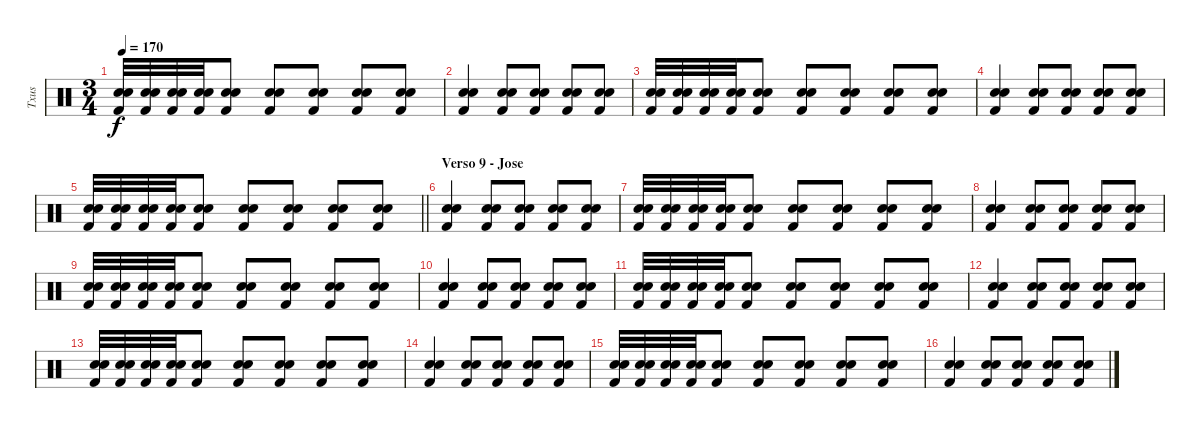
\track ("Txus" "Txus") {instrument percussion}
\staff {score}
\articulation defaults
\ts (3 4)
\tempo 170
\clef neutral
\ks c
("Snare (hit) 2" "Hand Clap (hit)" "Kick (hit) 2").32{dy f} ("Snare (hit) 2" "Hand Clap (hit)" "Kick (hit) 2").32 ("Snare (hit) 2" "Hand Clap (hit)" "Kick (hit) 2").32 ("Snare (hit) 2" "Hand Clap (hit)" "Kick (hit) 2").32 ("Snare (hit) 2" "Hand Clap (hit)" "Kick (hit) 2").8 ("Snare (hit) 2" "Hand Clap (hit)" "Kick (hit) 2").8 ("Snare (hit) 2" "Hand Clap (hit)" "Kick (hit) 2").8 ("Snare (hit) 2" "Hand Clap (hit)" "Kick (hit) 2").8 ("Snare (hit) 2" "Hand Clap (hit)" "Kick (hit) 2").8 |
("Snare (hit) 2" "Hand Clap (hit)" "Kick (hit) 2").4 ("Snare (hit) 2" "Hand Clap (hit)" "Kick (hit) 2").8 ("Snare (hit) 2" "Hand Clap (hit)" "Kick (hit) 2").8 ("Snare (hit) 2" "Hand Clap (hit)" "Kick (hit) 2").8 ("Snare (hit) 2" "Hand Clap (hit)" "Kick (hit) 2").8 |
("Snare (hit) 2" "Hand Clap (hit)" "Kick (hit) 2").32 ("Snare (hit) 2" "Hand Clap (hit)" "Kick (hit) 2").32 ("Snare (hit) 2" "Hand Clap (hit)" "Kick (hit) 2").32 ("Snare (hit) 2" "Hand Clap (hit)" "Kick (hit) 2").32 ("Snare (hit) 2" "Hand Clap (hit)" "Kick (hit) 2").8 ("Snare (hit) 2" "Hand Clap (hit)" "Kick (hit) 2").8 ("Snare (hit) 2" "Hand Clap (hit)" "Kick (hit) 2").8 ("Snare (hit) 2" "Hand Clap (hit)" "Kick (hit) 2").8 ("Snare (hit) 2" "Hand Clap (hit)" "Kick (hit) 2").8 |
("Snare (hit) 2" "Hand Clap (hit)" "Kick (hit) 2").4 ("Snare (hit) 2" "Hand Clap (hit)" "Kick (hit) 2").8 ("Snare (hit) 2" "Hand Clap (hit)" "Kick (hit) 2").8 ("Snare (hit) 2" "Hand Clap (hit)" "Kick (hit) 2").8 ("Snare (hit) 2" "Hand Clap (hit)" "Kick (hit) 2").8 |
\barLineRight lightlight
("Snare (hit) 2" "Hand Clap (hit)" "Kick (hit) 2").32 ("Snare (hit) 2" "Hand Clap (hit)" "Kick (hit) 2").32 ("Snare (hit) 2" "Hand Clap (hit)" "Kick (hit) 2").32 ("Snare (hit) 2" "Hand Clap (hit)" "Kick (hit) 2").32 ("Snare (hit) 2" "Hand Clap (hit)" "Kick (hit) 2").8 ("Snare (hit) 2" "Hand Clap (hit)" "Kick (hit) 2").8 ("Snare (hit) 2" "Hand Clap (hit)" "Kick (hit) 2").8 ("Snare (hit) 2" "Hand Clap (hit)" "Kick (hit) 2").8 ("Snare (hit) 2" "Hand Clap (hit)" "Kick (hit) 2").8 |
\section ("" "Verso 9 - Jose")
("Snare (hit) 2" "Hand Clap (hit)" "Kick (hit) 2").4 ("Snare (hit) 2" "Hand Clap (hit)" "Kick (hit) 2").8 ("Snare (hit) 2" "Hand Clap (hit)" "Kick (hit) 2").8 ("Snare (hit) 2" "Hand Clap (hit)" "Kick (hit) 2").8 ("Snare (hit) 2" "Hand Clap (hit)" "Kick (hit) 2").8 |
("Snare (hit) 2" "Hand Clap (hit)" "Kick (hit) 2").32 ("Snare (hit) 2" "Hand Clap (hit)" "Kick (hit) 2").32 ("Snare (hit) 2" "Hand Clap (hit)" "Kick (hit) 2").32 ("Snare (hit) 2" "Hand Clap (hit)" "Kick (hit) 2").32 ("Snare (hit) 2" "Hand Clap (hit)" "Kick (hit) 2").8 ("Snare (hit) 2" "Hand Clap (hit)" "Kick (hit) 2").8 ("Snare (hit) 2" "Hand Clap (hit)" "Kick (hit) 2").8 ("Snare (hit) 2" "Hand Clap (hit)" "Kick (hit) 2").8 ("Snare (hit) 2" "Hand Clap (hit)" "Kick (hit) 2").8 |
("Snare (hit) 2" "Hand Clap (hit)" "Kick (hit) 2").4 ("Snare (hit) 2" "Hand Clap (hit)" "Kick (hit) 2").8 ("Snare (hit) 2" "Hand Clap (hit)" "Kick (hit) 2").8 ("Snare (hit) 2" "Hand Clap (hit)" "Kick (hit) 2").8 ("Snare (hit) 2" "Hand Clap (hit)" "Kick (hit) 2").8 |
("Snare (hit) 2" "Hand Clap (hit)" "Kick (hit) 2").32 ("Snare (hit) 2" "Hand Clap (hit)" "Kick (hit) 2").32 ("Snare (hit) 2" "Hand Clap (hit)" "Kick (hit) 2").32 ("Snare (hit) 2" "Hand Clap (hit)" "Kick (hit) 2").32 ("Snare (hit) 2" "Hand Clap (hit)" "Kick (hit) 2").8 ("Snare (hit) 2" "Hand Clap (hit)" "Kick (hit) 2").8 ("Snare (hit) 2" "Hand Clap (hit)" "Kick (hit) 2").8 ("Snare (hit) 2" "Hand Clap (hit)" "Kick (hit) 2").8 ("Snare (hit) 2" "Hand Clap (hit)" "Kick (hit) 2").8 |
("Snare (hit) 2" "Hand Clap (hit)" "Kick (hit) 2").4 ("Snare (hit) 2" "Hand Clap (hit)" "Kick (hit) 2").8 ("Snare (hit) 2" "Hand Clap (hit)" "Kick (hit) 2").8 ("Snare (hit) 2" "Hand Clap (hit)" "Kick (hit) 2").8 ("Snare (hit) 2" "Hand Clap (hit)" "Kick (hit) 2").8 |
("Snare (hit) 2" "Hand Clap (hit)" "Kick (hit) 2").32 ("Snare (hit) 2" "Hand Clap (hit)" "Kick (hit) 2").32 ("Snare (hit) 2" "Hand Clap (hit)" "Kick (hit) 2").32 ("Snare (hit) 2" "Hand Clap (hit)" "Kick (hit) 2").32 ("Snare (hit) 2" "Hand Clap (hit)" "Kick (hit) 2").8 ("Snare (hit) 2" "Hand Clap (hit)" "Kick (hit) 2").8 ("Snare (hit) 2" "Hand Clap (hit)" "Kick (hit) 2").8 ("Snare (hit) 2" "Hand Clap (hit)" "Kick (hit) 2").8 ("Snare (hit) 2" "Hand Clap (hit)" "Kick (hit) 2").8 |
("Snare (hit) 2" "Hand Clap (hit)" "Kick (hit) 2").4 ("Snare (hit) 2" "Hand Clap (hit)" "Kick (hit) 2").8 ("Snare (hit) 2" "Hand Clap (hit)" "Kick (hit) 2").8 ("Snare (hit) 2" "Hand Clap (hit)" "Kick (hit) 2").8 ("Snare (hit) 2" "Hand Clap (hit)" "Kick (hit) 2").8 |
("Snare (hit) 2" "Hand Clap (hit)" "Kick (hit) 2").32 ("Snare (hit) 2" "Hand Clap (hit)" "Kick (hit) 2").32 ("Snare (hit) 2" "Hand Clap (hit)" "Kick (hit) 2").32 ("Snare (hit) 2" "Hand Clap (hit)" "Kick (hit) 2").32 ("Snare (hit) 2" "Hand Clap (hit)" "Kick (hit) 2").8 ("Snare (hit) 2" "Hand Clap (hit)" "Kick (hit) 2").8 ("Snare (hit) 2" "Hand Clap (hit)" "Kick (hit) 2").8 ("Snare (hit) 2" "Hand Clap (hit)" "Kick (hit) 2").8 ("Snare (hit) 2" "Hand Clap (hit)" "Kick (hit) 2").8 |
("Snare (hit) 2" "Hand Clap (hit)" "Kick (hit) 2").4 ("Snare (hit) 2" "Hand Clap (hit)" "Kick (hit) 2").8 ("Snare (hit) 2" "Hand Clap (hit)" "Kick (hit) 2").8 ("Snare (hit) 2" "Hand Clap (hit)" "Kick (hit) 2").8 ("Snare (hit) 2" "Hand Clap (hit)" "Kick (hit) 2").8 |
("Snare (hit) 2" "Hand Clap (hit)" "Kick (hit) 2").32 ("Snare (hit) 2" "Hand Clap (hit)" "Kick (hit) 2").32 ("Snare (hit) 2" "Hand Clap (hit)" "Kick (hit) 2").32 ("Snare (hit) 2" "Hand Clap (hit)" "Kick (hit) 2").32 ("Snare (hit) 2" "Hand Clap (hit)" "Kick (hit) 2").8 ("Snare (hit) 2" "Hand Clap (hit)" "Kick (hit) 2").8 ("Snare (hit) 2" "Hand Clap (hit)" "Kick (hit) 2").8 ("Snare (hit) 2" "Hand Clap (hit)" "Kick (hit) 2").8 ("Snare (hit) 2" "Hand Clap (hit)" "Kick (hit) 2").8 |
("Snare (hit) 2" "Hand Clap (hit)" "Kick (hit) 2").4 ("Snare (hit) 2" "Hand Clap (hit)" "Kick (hit) 2").8 ("Snare (hit) 2" "Hand Clap (hit)" "Kick (hit) 2").8 ("Snare (hit) 2" "Hand Clap (hit)" "Kick (hit) 2").8 ("Snare (hit) 2" "Hand Clap (hit)" "Kick (hit) 2").8
